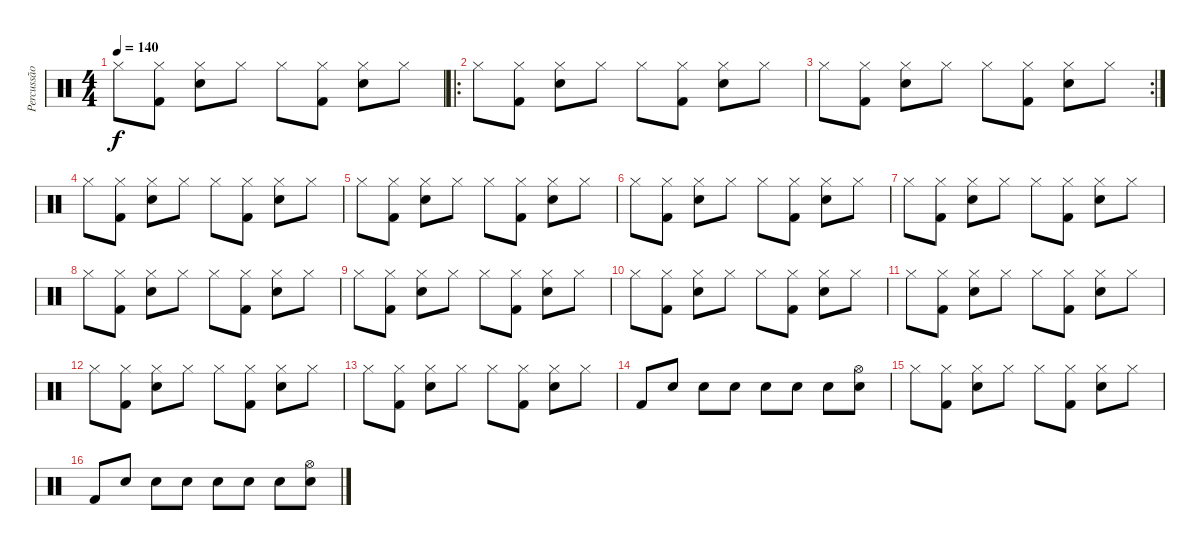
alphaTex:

\track ("Percussão" "Percussão") {instrument percussion}
\staff {score}
\articulation defaults
\ts (4 4)
\tempo 140
\clef neutral
\ks c "Hi-Hat (closed)".8{dy f}
("Kick (hit) 2" "Hi-Hat (closed)").8 ("Snare (hit) 2" "Hi-Hat (closed)").8 "Hi-Hat (closed)".8 "Hi-Hat (closed)".8 ("Kick (hit) 2" "Hi-Hat (closed)").8 ("Hi-Hat (closed)" "Snare (hit) 2").8 "Hi-Hat (closed)".8 |
\ro "Hi-Hat (closed)".8
("Kick (hit) 2" "Hi-Hat (closed)").8 ("Snare (hit) 2" "Hi-Hat (closed)").8 "Hi-Hat (closed)".8 "Hi-Hat (closed)".8 ("Kick (hit) 2" "Hi-Hat (closed)").8 ("Hi-Hat (closed)" "Snare (hit) 2").8 "Hi-Hat (closed)".8 |
\rc 2 "Hi-Hat (closed)".8
("Kick (hit) 2" "Hi-Hat (closed)").8 ("Snare (hit) 2" "Hi-Hat (closed)").8 "Hi-Hat (closed)".8 "Hi-Hat (closed)".8 ("Kick (hit) 2" "Hi-Hat (closed)").8 ("Hi-Hat (closed)" "Snare (hit) 2").8 "Hi-Hat (closed)".8 |
"Hi-Hat (closed)".8 ("Kick (hit) 2" "Hi-Hat (closed)").8 ("Snare (hit) 2" "Hi-Hat (closed)").8 "Hi-Hat (closed)".8 "Hi-Hat (closed)".8 ("Kick (hit) 2" "Hi-Hat (closed)").8 ("Hi-Hat (closed)" "Snare (hit) 2").8 "Hi-Hat (closed)".8 |
"Hi-Hat (closed)".8 ("Kick (hit) 2" "Hi-Hat (closed)").8 ("Snare (hit) 2" "Hi-Hat (closed)").8 "Hi-Hat (closed)".8 "Hi-Hat (closed)".8 ("Kick (hit) 2" "Hi-Hat (closed)").8 ("Hi-Hat (closed)" "Snare (hit) 2").8 "Hi-Hat (closed)".8 |
"Hi-Hat (closed)".8 ("Kick (hit) 2" "Hi-Hat (closed)").8 ("Snare (hit) 2" "Hi-Hat (closed)").8 "Hi-Hat (closed)".8 "Hi-Hat (closed)".8 ("Kick (hit) 2" "Hi-Hat (closed)").8 ("Hi-Hat (closed)" "Snare (hit) 2").8 "Hi-Hat (closed)".8 |
"Hi-Hat (closed)".8 ("Kick (hit) 2" "Hi-Hat (closed)").8 ("Snare (hit) 2" "Hi-Hat (closed)").8 "Hi-Hat (closed)".8 "Hi-Hat (closed)".8 ("Kick (hit) 2" "Hi-Hat (closed)").8 ("Hi-Hat (closed)" "Snare (hit) 2").8 "Hi-Hat (closed)".8 |
"Hi-Hat (closed)".8 ("Kick (hit) 2" "Hi-Hat (closed)").8 ("Snare (hit) 2" "Hi-Hat (closed)").8 "Hi-Hat (closed)".8 "Hi-Hat (closed)".8 ("Kick (hit) 2" "Hi-Hat (closed)").8 ("Hi-Hat (closed)" "Snare (hit) 2").8 "Hi-Hat (closed)".8 |
"Hi-Hat (closed)".8 ("Kick (hit) 2" "Hi-Hat (closed)").8 ("Snare (hit) 2" "Hi-Hat (closed)").8 "Hi-Hat (closed)".8 "Hi-Hat (closed)".8 ("Kick (hit) 2" "Hi-Hat (closed)").8 ("Hi-Hat (closed)" "Snare (hit) 2").8 "Hi-Hat (closed)".8 |
"Hi-Hat (closed)".8 ("Kick (hit) 2" "Hi-Hat (closed)").8 ("Snare (hit) 2" "Hi-Hat (closed)").8 "Hi-Hat (closed)".8 "Hi-Hat (closed)".8 ("Kick (hit) 2" "Hi-Hat (closed)").8 ("Hi-Hat (closed)" "Snare (hit) 2").8 "Hi-Hat (closed)".8 |
"Hi-Hat (closed)".8 ("Kick (hit) 2" "Hi-Hat (closed)").8 ("Snare (hit) 2" "Hi-Hat (closed)").8 "Hi-Hat (closed)".8 "Hi-Hat (closed)".8 ("Kick (hit) 2" "Hi-Hat (closed)").8 ("Hi-Hat (closed)" "Snare (hit) 2").8 "Hi-Hat (closed)".8 |
"Hi-Hat (closed)".8 ("Kick (hit) 2" "Hi-Hat (closed)").8 ("Snare (hit) 2" "Hi-Hat (closed)").8 "Hi-Hat (closed)".8 "Hi-Hat (closed)".8 ("Kick (hit) 2" "Hi-Hat (closed)").8 ("Hi-Hat (closed)" "Snare (hit) 2").8 "Hi-Hat (closed)".8 |
"Hi-Hat (closed)".8 ("Kick (hit) 2" "Hi-Hat (closed)").8 ("Snare (hit) 2" "Hi-Hat (closed)").8 "Hi-Hat (closed)".8 "Hi-Hat (closed)".8 ("Kick (hit) 2" "Hi-Hat (closed)").8 ("Hi-Hat (closed)" "Snare (hit) 2").8 "Hi-Hat (closed)".8 |
"Kick (hit) 2".8 "Snare (hit) 2".8 "Snare (hit) 2".8 "Snare (hit) 2".8 "Snare (hit) 2".8 "Snare (hit) 2".8 "Snare (hit) 2".8 ("Hi-Hat (open)" "Snare (hit) 2").8 |
"Hi-Hat (closed)".8 ("Kick (hit) 2" "Hi-Hat (closed)").8 ("Snare (hit) 2" "Hi-Hat (closed)").8 "Hi-Hat (closed)".8 "Hi-Hat (closed)".8 ("Kick (hit) 2" "Hi-Hat (closed)").8 ("Hi-Hat (closed)" "Snare (hit) 2").8 "Hi-Hat (closed)".8 |
"Kick (hit) 2".8 "Snare (hit) 2".8 "Snare (hit) 2".8 "Snare (hit) 2".8 "Snare (hit) 2".8 "Snare (hit) 2".8 "Snare (hit) 2".8 ("Hi-Hat (open)" "Snare (hit) 2").8
